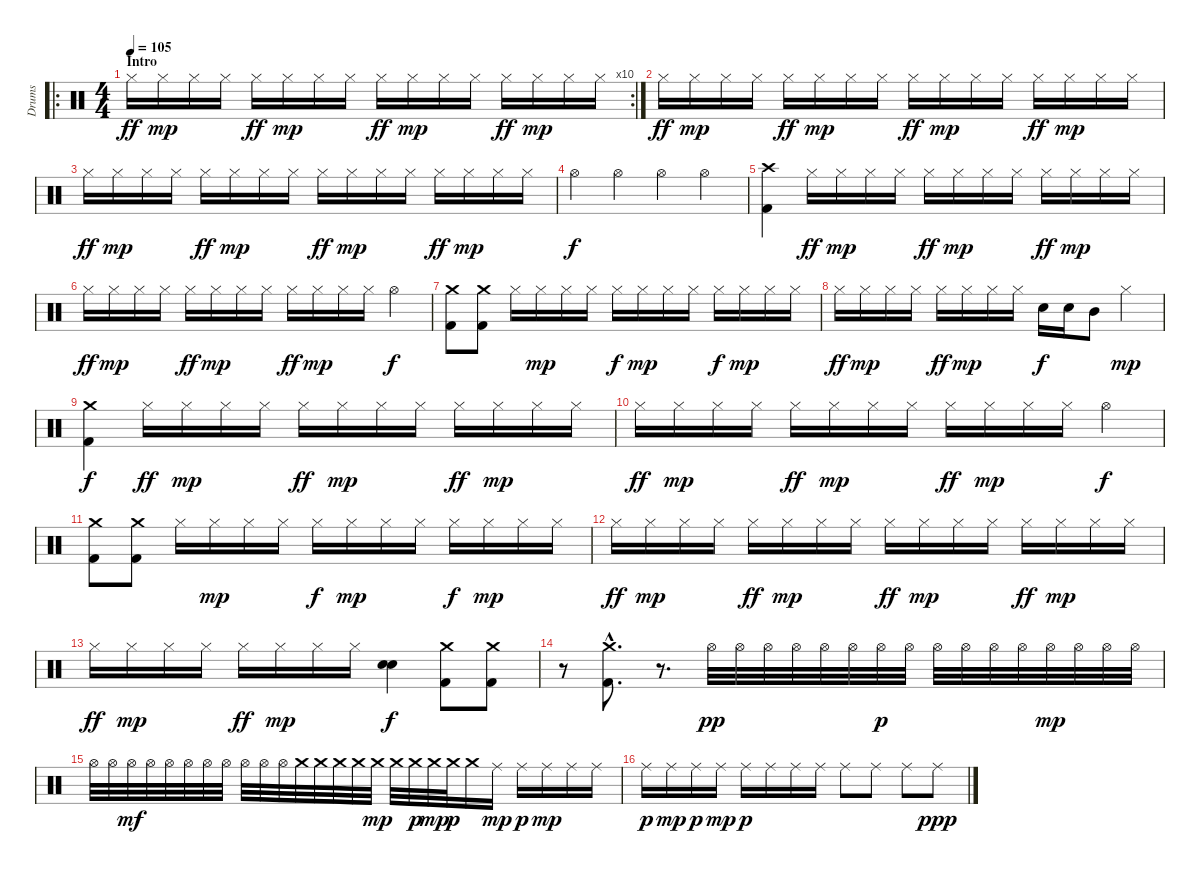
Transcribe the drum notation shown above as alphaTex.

\track ("Drums" "Drums") {instrument percussion}
\staff {score}
\articulation defaults
\ro
\rc 10
\ts (4 4)
\section ("" "Intro")
\tempo 105
\clef neutral
\ks c "Hi-Hat (closed)".16{dy ff} "Hi-Hat (closed)".16{dy mp} "Hi-Hat (closed)".16 "Hi-Hat (closed)".16 "Hi-Hat (closed)".16{dy ff} "Hi-Hat (closed)".16{dy mp} "Hi-Hat (closed)".16 "Hi-Hat (closed)".16 "Hi-Hat (closed)".16{dy ff} "Hi-Hat (closed)".16{dy mp} "Hi-Hat (closed)".16 "Hi-Hat (closed)".16 "Hi-Hat (closed)".16{dy ff} "Hi-Hat (closed)".16{dy mp} "Hi-Hat (closed)".16 "Hi-Hat (closed)".16
|
"Hi-Hat (closed)".16{dy ff} "Hi-Hat (closed)".16{dy mp} "Hi-Hat (closed)".16 "Hi-Hat (closed)".16 "Hi-Hat (closed)".16{dy ff} "Hi-Hat (closed)".16{dy mp} "Hi-Hat (closed)".16 "Hi-Hat (closed)".16 "Hi-Hat (closed)".16{dy ff} "Hi-Hat (closed)".16{dy mp} "Hi-Hat (closed)".16 "Hi-Hat (closed)".16 "Hi-Hat (closed)".16{dy ff} "Hi-Hat (closed)".16{dy mp} "Hi-Hat (closed)".16 "Hi-Hat (closed)".16 |
"Hi-Hat (closed)".16{dy ff} "Hi-Hat (closed)".16{dy mp} "Hi-Hat (closed)".16 "Hi-Hat (closed)".16 "Hi-Hat (closed)".16{dy ff} "Hi-Hat (closed)".16{dy mp} "Hi-Hat (closed)".16 "Hi-Hat (closed)".16 "Hi-Hat (closed)".16{dy ff} "Hi-Hat (closed)".16{dy mp} "Hi-Hat (closed)".16 "Hi-Hat (closed)".16 "Hi-Hat (closed)".16{dy ff} "Hi-Hat (closed)".16{dy mp} "Hi-Hat (closed)".16 "Hi-Hat (closed)".16 |
"Hi-Hat (open)".4{dy f} "Hi-Hat (open)".4 "Hi-Hat (open)".4 "Hi-Hat (open)".4 |
("Crash high (hit)" "Kick (hit) 2").4 "Hi-Hat (closed)".16{dy ff} "Hi-Hat (closed)".16{dy mp} "Hi-Hat (closed)".16 "Hi-Hat (closed)".16 "Hi-Hat (closed)".16{dy ff} "Hi-Hat (closed)".16{dy mp} "Hi-Hat (closed)".16 "Hi-Hat (closed)".16 "Hi-Hat (closed)".16{dy ff} "Hi-Hat (closed)".16{dy mp} "Hi-Hat (closed)".16 "Hi-Hat (closed)".16 |
"Hi-Hat (closed)".16{dy ff} "Hi-Hat (closed)".16{dy mp} "Hi-Hat (closed)".16 "Hi-Hat (closed)".16 "Hi-Hat (closed)".16{dy ff} "Hi-Hat (closed)".16{dy mp} "Hi-Hat (closed)".16 "Hi-Hat (closed)".16 "Hi-Hat (closed)".16{dy ff} "Hi-Hat (closed)".16{dy mp} "Hi-Hat (closed)".16 "Hi-Hat (closed)".16 "Hi-Hat (open)".4{dy f} |
("Crash medium (hit)" "Kick (hit) 2").8 ("Crash medium (hit)" "Kick (hit) 2").8 "Hi-Hat (closed)".16 "Hi-Hat (closed)".16{dy mp} "Hi-Hat (closed)".16 "Hi-Hat (closed)".16 "Hi-Hat (closed)".16{dy f} "Hi-Hat (closed)".16{dy mp} "Hi-Hat (closed)".16 "Hi-Hat (closed)".16 "Hi-Hat (closed)".16{dy f} "Hi-Hat (closed)".16{dy mp} "Hi-Hat (closed)".16 "Hi-Hat (closed)".16 |
"Hi-Hat (closed)".16{dy ff} "Hi-Hat (closed)".16{dy mp} "Hi-Hat (closed)".16 "Hi-Hat (closed)".16 "Hi-Hat (closed)".16{dy ff} "Hi-Hat (closed)".16{dy mp} "Hi-Hat (closed)".16 "Hi-Hat (closed)".16 "Electric Snare (hit)".16{dy f} "Electric Snare (hit)".16 "Mid Tom (hit)".8 "Hi-Hat (closed)".4{dy mp} |
("Crash medium (hit)" "Kick (hit) 2").4{dy f} "Hi-Hat (closed)".16{dy ff} "Hi-Hat (closed)".16{dy mp} "Hi-Hat (closed)".16 "Hi-Hat (closed)".16 "Hi-Hat (closed)".16{dy ff} "Hi-Hat (closed)".16{dy mp} "Hi-Hat (closed)".16 "Hi-Hat (closed)".16 "Hi-Hat (closed)".16{dy ff} "Hi-Hat (closed)".16{dy mp} "Hi-Hat (closed)".16 "Hi-Hat (closed)".16 |
"Hi-Hat (closed)".16{dy ff} "Hi-Hat (closed)".16{dy mp} "Hi-Hat (closed)".16 "Hi-Hat (closed)".16 "Hi-Hat (closed)".16{dy ff} "Hi-Hat (closed)".16{dy mp} "Hi-Hat (closed)".16 "Hi-Hat (closed)".16 "Hi-Hat (closed)".16{dy ff} "Hi-Hat (closed)".16{dy mp} "Hi-Hat (closed)".16 "Hi-Hat (closed)".16 "Hi-Hat (open)".4{dy f} |
("Crash medium (hit)" "Kick (hit) 2").8 ("Crash medium (hit)" "Kick (hit) 2").8 "Hi-Hat (closed)".16 "Hi-Hat (closed)".16{dy mp} "Hi-Hat (closed)".16 "Hi-Hat (closed)".16 "Hi-Hat (closed)".16{dy f} "Hi-Hat (closed)".16{dy mp} "Hi-Hat (closed)".16 "Hi-Hat (closed)".16 "Hi-Hat (closed)".16{dy f} "Hi-Hat (closed)".16{dy mp} "Hi-Hat (closed)".16 "Hi-Hat (closed)".16 |
"Hi-Hat (closed)".16{dy ff} "Hi-Hat (closed)".16{dy mp} "Hi-Hat (closed)".16 "Hi-Hat (closed)".16 "Hi-Hat (closed)".16{dy ff} "Hi-Hat (closed)".16{dy mp} "Hi-Hat (closed)".16 "Hi-Hat (closed)".16 "Hi-Hat (closed)".16{dy ff} "Hi-Hat (closed)".16{dy mp} "Hi-Hat (closed)".16 "Hi-Hat (closed)".16 "Hi-Hat (closed)".16{dy ff} "Hi-Hat (closed)".16{dy mp} "Hi-Hat (closed)".16 "Hi-Hat (closed)".16 |
"Hi-Hat (closed)".16{dy ff} "Hi-Hat (closed)".16{dy mp} "Hi-Hat (closed)".16 "Hi-Hat (closed)".16 "Hi-Hat (closed)".16{dy ff} "Hi-Hat (closed)".16{dy mp} "Hi-Hat (closed)".16 "Hi-Hat (closed)".16 ("Electric Snare (hit)" "Electric Snare (hit)").4{bd 120 dy f} ("Crash medium (hit)" "Kick (hit) 2").8 ("Crash medium (hit)" "Kick (hit) 2").8 |
r.8 ("Crash medium (hit)"{hac} "Kick (hit) 2"{hac}).8{d} r.8{d} "Hi-Hat (open)".32{dy pp} "Hi-Hat (open)".32 "Hi-Hat (open)".32 "Hi-Hat (open)".32 "Hi-Hat (open)".32 "Hi-Hat (open)".32 "Hi-Hat (open)".32{dy p} "Hi-Hat (open)".32 "Hi-Hat (open)".32 "Hi-Hat (open)".32 "Hi-Hat (open)".32 "Hi-Hat (open)".32 "Hi-Hat (open)".32{dy mp} "Hi-Hat (open)".32 "Hi-Hat (open)".32 "Hi-Hat (open)".32 |
"Hi-Hat (open)".32 "Hi-Hat (open)".32 "Hi-Hat (open)".32{dy mf} "Hi-Hat (open)".32 "Hi-Hat (open)".32 "Hi-Hat (open)".32 "Hi-Hat (open)".32 "Hi-Hat (open)".32 "Hi-Hat (open)".32 "Hi-Hat (open)".32 "Hi-Hat (open)".32 "Crash medium (hit)".32 "Crash medium (hit)".32 "Crash medium (hit)".32 "Crash medium (hit)".32 "Crash medium (hit)".32{dy mp} "Crash medium (hit)".32 "Crash medium (hit)".32{dy p} "Crash medium (hit)".32{dy mp} "Crash medium (hit)".32{dy p} "Crash medium (hit)".16 "Ride (middle)".16{dy mp} "Ride (middle)".16{dy p} "Ride (middle)".16{dy mp} "Ride (middle)".16 "Ride (middle)".16 |
"Ride (middle)".16{dy p} "Ride (middle)".16{dy mp} "Ride (middle)".16{dy p} "Ride (middle)".16{dy mp} "Ride (middle)".16{dy p} "Ride (middle)".16 "Ride (middle)".16 "Ride (middle)".16 "Ride (middle)".8 "Ride (middle)".8 "Ride (middle)".8 "Ride (middle)".8{dy ppp}
